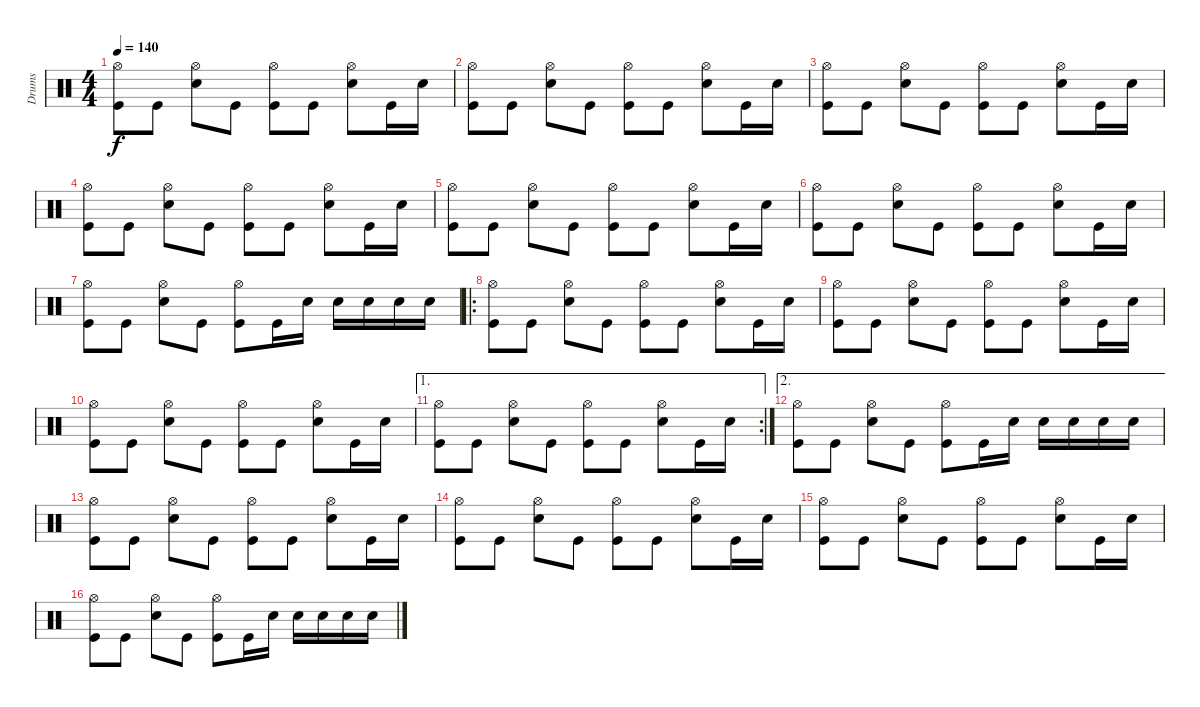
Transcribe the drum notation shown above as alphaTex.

\track ("Drums" "Drums") {instrument percussion}
\staff {score}
\articulation defaults
\ts (4 4)
\tempo 140
\clef neutral
\ks c
("Hi-Hat (open)" "Kick (hit)").8{dy f} "Kick (hit)".8 ("Hi-Hat (open)" "Snare (hit) 2").8 "Kick (hit)".8 ("Hi-Hat (open)" "Kick (hit)").8 "Kick (hit)".8 ("Hi-Hat (open)" "Snare (hit) 2").8 "Kick (hit)".16 "Snare (hit) 2".16 |
("Hi-Hat (open)" "Kick (hit)").8 "Kick (hit)".8 ("Hi-Hat (open)" "Snare (hit) 2").8 "Kick (hit)".8 ("Hi-Hat (open)" "Kick (hit)").8 "Kick (hit)".8 ("Hi-Hat (open)" "Snare (hit) 2").8 "Kick (hit)".16 "Snare (hit) 2".16 |
("Hi-Hat (open)" "Kick (hit)").8 "Kick (hit)".8 ("Hi-Hat (open)" "Snare (hit) 2").8 "Kick (hit)".8 ("Hi-Hat (open)" "Kick (hit)").8 "Kick (hit)".8 ("Hi-Hat (open)" "Snare (hit) 2").8 "Kick (hit)".16 "Snare (hit) 2".16 |
("Hi-Hat (open)" "Kick (hit)").8 "Kick (hit)".8 ("Hi-Hat (open)" "Snare (hit) 2").8 "Kick (hit)".8 ("Hi-Hat (open)" "Kick (hit)").8 "Kick (hit)".8 ("Hi-Hat (open)" "Snare (hit) 2").8 "Kick (hit)".16 "Snare (hit) 2".16 |
("Hi-Hat (open)" "Kick (hit)").8 "Kick (hit)".8 ("Hi-Hat (open)" "Snare (hit) 2").8 "Kick (hit)".8 ("Hi-Hat (open)" "Kick (hit)").8 "Kick (hit)".8 ("Hi-Hat (open)" "Snare (hit) 2").8 "Kick (hit)".16 "Snare (hit) 2".16 |
("Hi-Hat (open)" "Kick (hit)").8 "Kick (hit)".8 ("Hi-Hat (open)" "Snare (hit) 2").8 "Kick (hit)".8 ("Hi-Hat (open)" "Kick (hit)").8 "Kick (hit)".8 ("Hi-Hat (open)" "Snare (hit) 2").8 "Kick (hit)".16 "Snare (hit) 2".16 |
("Hi-Hat (open)" "Kick (hit)").8 "Kick (hit)".8 ("Hi-Hat (open)" "Snare (hit) 2").8 "Kick (hit)".8 ("Hi-Hat (open)" "Kick (hit)").8 "Kick (hit)".16 "Snare (hit) 2".16 "Snare (hit) 2".16 "Snare (hit) 2".16 "Snare (hit) 2".16 "Snare (hit) 2".16 |
\ro
("Hi-Hat (open)" "Kick (hit)").8 "Kick (hit)".8 ("Hi-Hat (open)" "Snare (hit) 2").8 "Kick (hit)".8 ("Hi-Hat (open)" "Kick (hit)").8 "Kick (hit)".8 ("Hi-Hat (open)" "Snare (hit) 2").8 "Kick (hit)".16 "Snare (hit) 2".16 |
("Hi-Hat (open)" "Kick (hit)").8 "Kick (hit)".8 ("Hi-Hat (open)" "Snare (hit) 2").8 "Kick (hit)".8 ("Hi-Hat (open)" "Kick (hit)").8 "Kick (hit)".8 ("Hi-Hat (open)" "Snare (hit) 2").8 "Kick (hit)".16 "Snare (hit) 2".16 |
("Hi-Hat (open)" "Kick (hit)").8 "Kick (hit)".8 ("Hi-Hat (open)" "Snare (hit) 2").8 "Kick (hit)".8 ("Hi-Hat (open)" "Kick (hit)").8 "Kick (hit)".8 ("Hi-Hat (open)" "Snare (hit) 2").8 "Kick (hit)".16 "Snare (hit) 2".16 |
\ae 1
\rc 2
("Hi-Hat (open)" "Kick (hit)").8 "Kick (hit)".8 ("Hi-Hat (open)" "Snare (hit) 2").8 "Kick (hit)".8 ("Hi-Hat (open)" "Kick (hit)").8 "Kick (hit)".8 ("Hi-Hat (open)" "Snare (hit) 2").8 "Kick (hit)".16 "Snare (hit) 2".16 |
\ae 2
("Hi-Hat (open)" "Kick (hit)").8 "Kick (hit)".8 ("Hi-Hat (open)" "Snare (hit) 2").8 "Kick (hit)".8 ("Hi-Hat (open)" "Kick (hit)").8 "Kick (hit)".16 "Snare (hit) 2".16 "Snare (hit) 2".16 "Snare (hit) 2".16 "Snare (hit) 2".16 "Snare (hit) 2".16 |
("Hi-Hat (open)" "Kick (hit)").8 "Kick (hit)".8 ("Hi-Hat (open)" "Snare (hit) 2").8 "Kick (hit)".8 ("Hi-Hat (open)" "Kick (hit)").8 "Kick (hit)".8 ("Hi-Hat (open)" "Snare (hit) 2").8 "Kick (hit)".16 "Snare (hit) 2".16 |
("Hi-Hat (open)" "Kick (hit)").8 "Kick (hit)".8 ("Hi-Hat (open)" "Snare (hit) 2").8 "Kick (hit)".8 ("Hi-Hat (open)" "Kick (hit)").8 "Kick (hit)".8 ("Hi-Hat (open)" "Snare (hit) 2").8 "Kick (hit)".16 "Snare (hit) 2".16 |
("Hi-Hat (open)" "Kick (hit)").8 "Kick (hit)".8 ("Hi-Hat (open)" "Snare (hit) 2").8 "Kick (hit)".8 ("Hi-Hat (open)" "Kick (hit)").8 "Kick (hit)".8 ("Hi-Hat (open)" "Snare (hit) 2").8 "Kick (hit)".16 "Snare (hit) 2".16 |
("Hi-Hat (open)" "Kick (hit)").8 "Kick (hit)".8 ("Hi-Hat (open)" "Snare (hit) 2").8 "Kick (hit)".8 ("Hi-Hat (open)" "Kick (hit)").8 "Kick (hit)".16 "Snare (hit) 2".16 "Snare (hit) 2".16 "Snare (hit) 2".16 "Snare (hit) 2".16 "Snare (hit) 2".16
